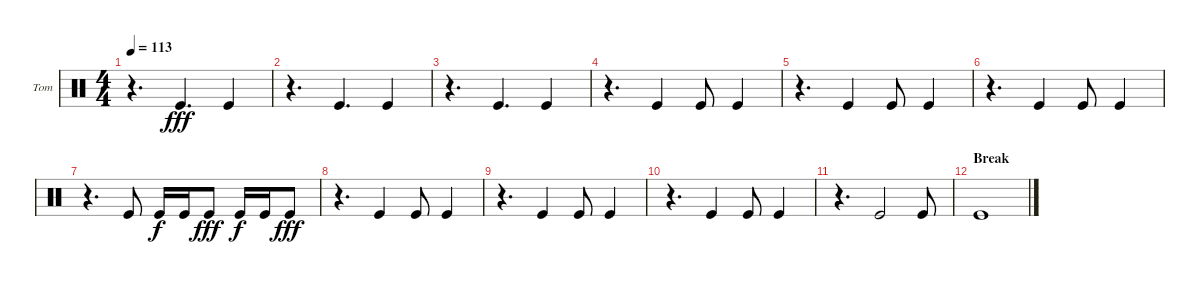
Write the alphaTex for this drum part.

\defaultSystemsLayout 4
\bracketExtendMode groupsimilarinstruments
\firstSystemTrackNameOrientation horizontal
\otherSystemsTrackNameOrientation horizontal
\track ("Melodic Tom" "Tom") {instrument percussion}
\staff {score}
\articulation defaults
\ts (4 4)
\tempo 113
\clef neutral
\scale
0.333333
\ks c
r.4{d dy fff} "Kick (hit)".4{d} "Kick (hit)".4 |
\scale
0.333333 r.4{d} "Kick (hit)".4{d} "Kick (hit)".4 |
\scale
0.333333 r.4{d} "Kick (hit)".4{d} "Kick (hit)".4 |
\scale
0.333333 r.4{d} "Kick (hit)".4 "Kick (hit)".8 "Kick (hit)".4 |
\scale
0.333333 r.4{d} "Kick (hit)".4 "Kick (hit)".8 "Kick (hit)".4 |
\scale
0.333333 r.4{d} "Kick (hit)".4 "Kick (hit)".8 "Kick (hit)".4 |
\scale
0.333333 r.4{d} "Kick (hit)".8 "Kick (hit)".16{dy f} "Kick (hit)".16 "Kick (hit)".8{dy fff} "Kick (hit)".16{dy f} "Kick (hit)".16 "Kick (hit)".8{dy fff} |
\scale
0.333333 r.4{d} "Kick (hit)".4 "Kick (hit)".8 "Kick (hit)".4 |
\scale
0.333333 r.4{d} "Kick (hit)".4 "Kick (hit)".8 "Kick (hit)".4 |
\scale
0.333333 r.4{d} "Kick (hit)".4 "Kick (hit)".8 "Kick (hit)".4 |
\scale
0.333333 r.4{d} "Kick (hit)".2 "Kick (hit)".8 |
\section ("" "Break")
\scale
0.333333 "Kick (hit)".1 |
\scale
0.333333
